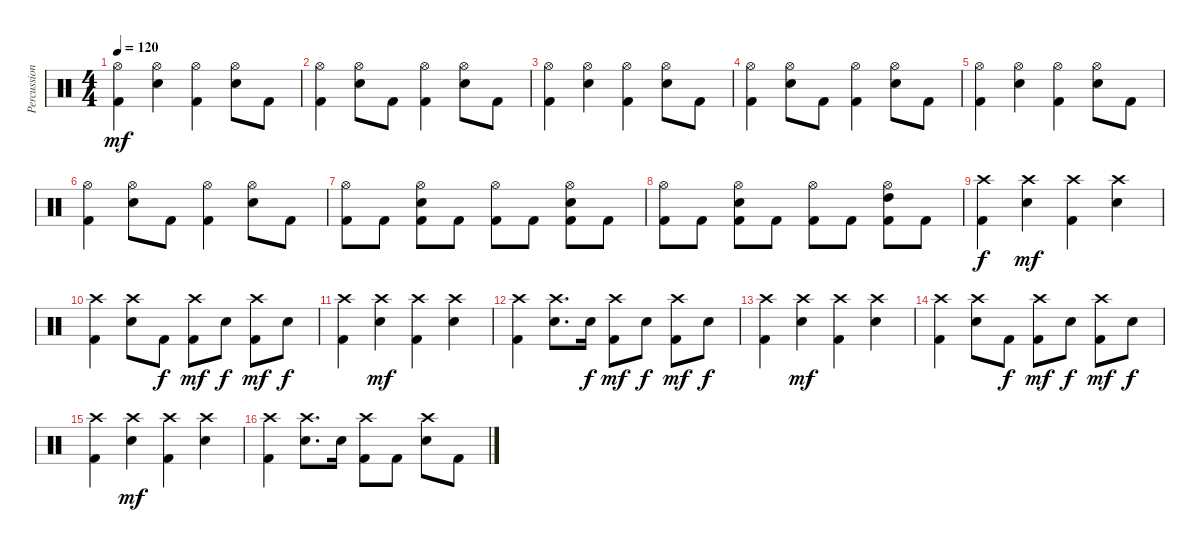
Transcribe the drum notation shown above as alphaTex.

\track ("Percussion" "Percussion") {instrument percussion}
\staff {score}
\articulation defaults
\ts (4 4)
\tempo 120
\clef neutral
\ks c
("Hi-Hat (open)" "Kick (hit) 2").4{dy mf} ("Hi-Hat (open)" "Snare (hit) 2").4 ("Hi-Hat (open)" "Kick (hit) 2").4 ("Hi-Hat (open)" "Snare (hit) 2").8 "Kick (hit) 2".8 |
("Hi-Hat (open)" "Kick (hit) 2").4 ("Hi-Hat (open)" "Snare (hit) 2").8 "Kick (hit) 2".8 ("Hi-Hat (open)" "Kick (hit) 2").4 ("Hi-Hat (open)" "Snare (hit) 2").8 "Kick (hit) 2".8 |
("Hi-Hat (open)" "Kick (hit) 2").4 ("Hi-Hat (open)" "Snare (hit) 2").4 ("Hi-Hat (open)" "Kick (hit) 2").4 ("Hi-Hat (open)" "Snare (hit) 2").8 "Kick (hit) 2".8 |
("Hi-Hat (open)" "Kick (hit) 2").4 ("Hi-Hat (open)" "Snare (hit) 2").8 "Kick (hit) 2".8 ("Hi-Hat (open)" "Kick (hit) 2").4 ("Hi-Hat (open)" "Snare (hit) 2").8 "Kick (hit) 2".8 |
("Hi-Hat (open)" "Kick (hit) 2").4 ("Hi-Hat (open)" "Snare (hit) 2").4 ("Hi-Hat (open)" "Kick (hit) 2").4 ("Hi-Hat (open)" "Snare (hit) 2").8 "Kick (hit) 2".8 |
("Hi-Hat (open)" "Kick (hit) 2").4 ("Hi-Hat (open)" "Snare (hit) 2").8 "Kick (hit) 2".8 ("Hi-Hat (open)" "Kick (hit) 2").4 ("Hi-Hat (open)" "Snare (hit) 2").8 "Kick (hit) 2".8 |
("Hi-Hat (open)" "Kick (hit) 2").8 "Kick (hit) 2".8 ("Hi-Hat (open)" "Snare (hit) 2" "Kick (hit) 2").8 "Kick (hit) 2".8 ("Hi-Hat (open)" "Kick (hit) 2").8 "Kick (hit) 2".8 ("Hi-Hat (open)" "Snare (hit) 2" "Kick (hit) 2").8 "Kick (hit) 2".8 |
("Hi-Hat (open)" "Kick (hit) 2").8 "Kick (hit) 2".8 ("Hi-Hat (open)" "Snare (hit) 2" "Kick (hit) 2").8 "Kick (hit) 2".8 ("Hi-Hat (open)" "Kick (hit) 2").8 "Kick (hit) 2".8 ("Hi-Hat (open)" "High Tom (hit)" "Kick (hit) 2").8 "Kick (hit) 2".8 |
("Crash high (hit)" "Kick (hit) 2").4{dy f} ("Crash high (hit)" "Snare (hit) 2").4{dy mf} ("Crash high (hit)" "Kick (hit) 2").4 ("Crash high (hit)" "Snare (hit) 2").4 |
("Crash high (hit)" "Kick (hit) 2").4 ("Crash high (hit)" "Snare (hit) 2").8 "Kick (hit) 2".8{dy f} ("Crash high (hit)" "Kick (hit) 2").8{dy mf} "Snare (hit) 2".8{dy f} ("Crash high (hit)" "Kick (hit) 2").8{dy mf} "Snare (hit) 2".8{dy f} |
("Crash high (hit)" "Kick (hit) 2").4 ("Crash high (hit)" "Snare (hit) 2").4{dy mf} ("Crash high (hit)" "Kick (hit) 2").4 ("Crash high (hit)" "Snare (hit) 2").4 |
("Crash high (hit)" "Kick (hit) 2").4 ("Crash high (hit)" "Snare (hit) 2").8{d} "Snare (hit) 2".16{dy f} ("Crash high (hit)" "Kick (hit) 2").8{dy mf} "Snare (hit) 2".8{dy f} ("Crash high (hit)" "Kick (hit) 2").8{dy mf} "Snare (hit) 2".8{dy f} |
("Crash high (hit)" "Kick (hit) 2").4 ("Crash high (hit)" "Snare (hit) 2").4{dy mf} ("Crash high (hit)" "Kick (hit) 2").4 ("Crash high (hit)" "Snare (hit) 2").4 |
("Crash high (hit)" "Kick (hit) 2").4 ("Crash high (hit)" "Snare (hit) 2").8 "Kick (hit) 2".8{dy f} ("Crash high (hit)" "Kick (hit) 2").8{dy mf} "Snare (hit) 2".8{dy f} ("Crash high (hit)" "Kick (hit) 2").8{dy mf} "Snare (hit) 2".8{dy f} |
("Crash high (hit)" "Kick (hit) 2").4 ("Crash high (hit)" "Snare (hit) 2").4{dy mf} ("Crash high (hit)" "Kick (hit) 2").4 ("Crash high (hit)" "Snare (hit) 2").4 |
("Crash high (hit)" "Kick (hit) 2").4 ("Crash high (hit)" "Snare (hit) 2").8{d} "Snare (hit) 2".16 ("Crash high (hit)" "Kick (hit) 2").8 "Kick (hit) 2".8 ("Crash high (hit)" "Snare (hit) 2").8 "Kick (hit) 2".8
